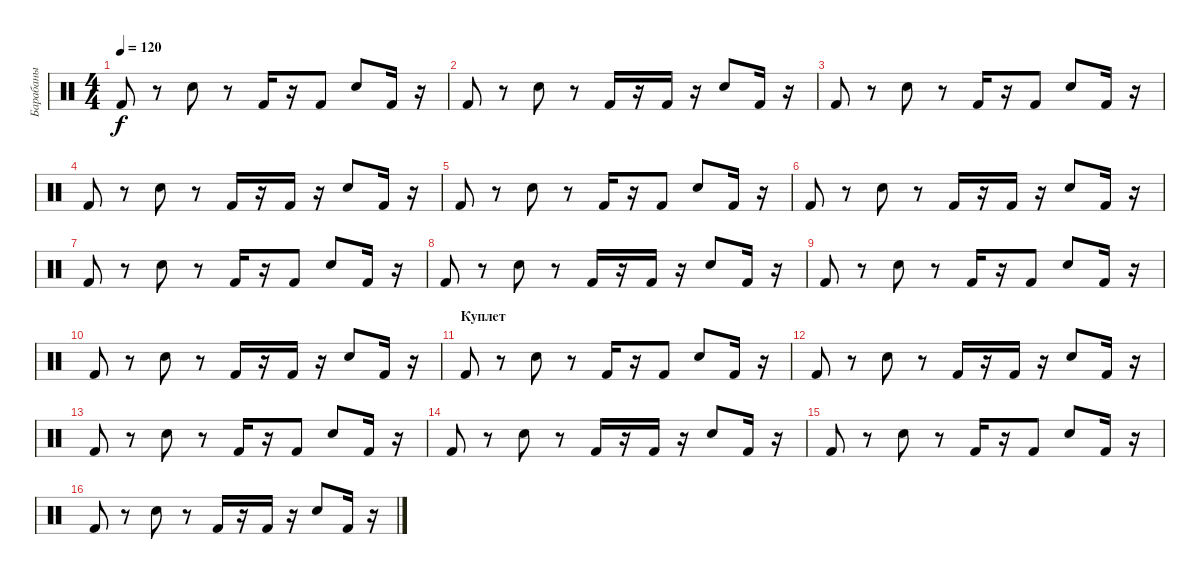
\track ("Барабаны" "Барабаны") {instrument percussion}
\staff {score}
\articulation defaults
\ts (4 4)
\tempo 120
\clef neutral
\ks c "Kick (hit) 2".8{dy f}
r.8 "Electric Snare (hit)".8 r.8 "Kick (hit) 2".16 r.16 "Kick (hit) 2".8 "Electric Snare (hit)".8 "Kick (hit) 2".16 r.16 |
"Kick (hit) 2".8 r.8 "Electric Snare (hit)".8 r.8 "Kick (hit) 2".16 r.16 "Kick (hit) 2".16 r.16 "Electric Snare (hit)".8 "Kick (hit) 2".16 r.16 |
"Kick (hit) 2".8 r.8 "Electric Snare (hit)".8 r.8 "Kick (hit) 2".16 r.16 "Kick (hit) 2".8 "Electric Snare (hit)".8 "Kick (hit) 2".16 r.16 |
"Kick (hit) 2".8 r.8 "Electric Snare (hit)".8 r.8 "Kick (hit) 2".16 r.16 "Kick (hit) 2".16 r.16 "Electric Snare (hit)".8 "Kick (hit) 2".16 r.16 |
"Kick (hit) 2".8 r.8 "Electric Snare (hit)".8 r.8 "Kick (hit) 2".16 r.16 "Kick (hit) 2".8 "Electric Snare (hit)".8 "Kick (hit) 2".16 r.16 |
"Kick (hit) 2".8 r.8 "Electric Snare (hit)".8 r.8 "Kick (hit) 2".16 r.16 "Kick (hit) 2".16 r.16 "Electric Snare (hit)".8 "Kick (hit) 2".16 r.16 |
"Kick (hit) 2".8 r.8 "Electric Snare (hit)".8 r.8 "Kick (hit) 2".16 r.16 "Kick (hit) 2".8 "Electric Snare (hit)".8 "Kick (hit) 2".16 r.16 |
"Kick (hit) 2".8 r.8 "Electric Snare (hit)".8 r.8 "Kick (hit) 2".16 r.16 "Kick (hit) 2".16 r.16 "Electric Snare (hit)".8 "Kick (hit) 2".16 r.16 |
"Kick (hit) 2".8 r.8 "Electric Snare (hit)".8 r.8 "Kick (hit) 2".16 r.16 "Kick (hit) 2".8 "Electric Snare (hit)".8 "Kick (hit) 2".16 r.16 |
"Kick (hit) 2".8 r.8 "Electric Snare (hit)".8 r.8 "Kick (hit) 2".16 r.16 "Kick (hit) 2".16 r.16 "Electric Snare (hit)".8 "Kick (hit) 2".16 r.16 |
\section ("" "Куплет")
"Kick (hit) 2".8 r.8 "Electric Snare (hit)".8 r.8 "Kick (hit) 2".16 r.16 "Kick (hit) 2".8 "Electric Snare (hit)".8 "Kick (hit) 2".16 r.16 |
"Kick (hit) 2".8 r.8 "Electric Snare (hit)".8 r.8 "Kick (hit) 2".16 r.16 "Kick (hit) 2".16 r.16 "Electric Snare (hit)".8 "Kick (hit) 2".16 r.16 |
"Kick (hit) 2".8 r.8 "Electric Snare (hit)".8 r.8 "Kick (hit) 2".16 r.16 "Kick (hit) 2".8 "Electric Snare (hit)".8 "Kick (hit) 2".16 r.16 |
"Kick (hit) 2".8 r.8 "Electric Snare (hit)".8 r.8 "Kick (hit) 2".16 r.16 "Kick (hit) 2".16 r.16 "Electric Snare (hit)".8 "Kick (hit) 2".16 r.16 |
"Kick (hit) 2".8 r.8 "Electric Snare (hit)".8 r.8 "Kick (hit) 2".16 r.16 "Kick (hit) 2".8 "Electric Snare (hit)".8 "Kick (hit) 2".16 r.16 |
"Kick (hit) 2".8 r.8 "Electric Snare (hit)".8 r.8 "Kick (hit) 2".16 r.16 "Kick (hit) 2".16 r.16 "Electric Snare (hit)".8 "Kick (hit) 2".16 r.16
